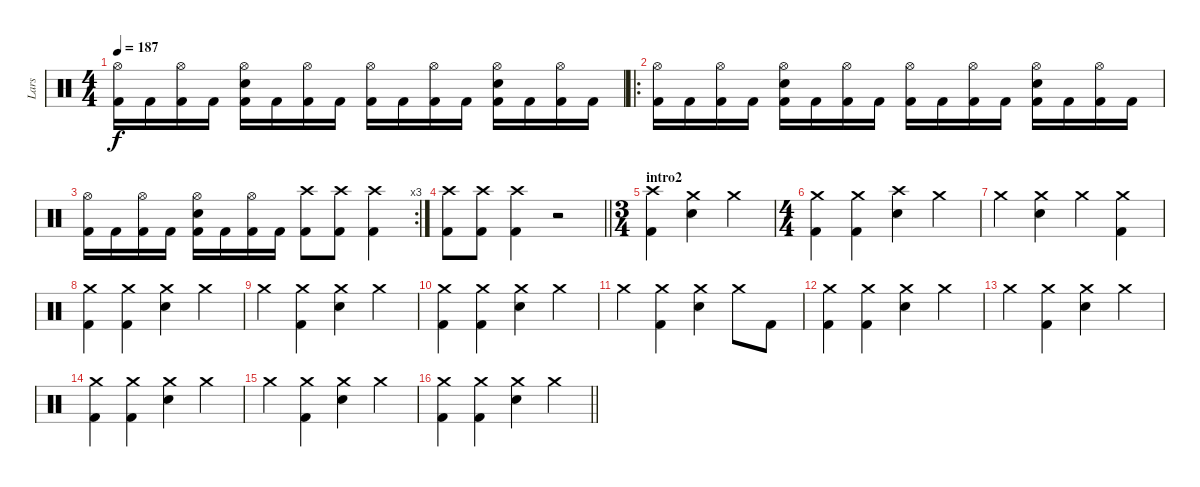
\track ("Lars" "Lars") {instrument percussion}
\staff {score}
\articulation defaults
\ts (4 4)
\tempo 187
\clef neutral
\ks c
("Hi-Hat (open)" "Kick (hit) 2").16{dy f} "Kick (hit) 2".16 ("Hi-Hat (open)" "Kick (hit) 2").16 "Kick (hit) 2".16 ("Hi-Hat (open)" "Snare (hit) 2" "Kick (hit) 2").16 "Kick (hit) 2".16 ("Hi-Hat (open)" "Kick (hit) 2").16 "Kick (hit) 2".16 ("Hi-Hat (open)" "Kick (hit) 2").16 "Kick (hit) 2".16 ("Hi-Hat (open)" "Kick (hit) 2").16 "Kick (hit) 2".16 ("Hi-Hat (open)" "Snare (hit) 2" "Kick (hit) 2").16 "Kick (hit) 2".16 ("Hi-Hat (open)" "Kick (hit) 2").16 "Kick (hit) 2".16 |
\ro
("Hi-Hat (open)" "Kick (hit) 2").16 "Kick (hit) 2".16 ("Hi-Hat (open)" "Kick (hit) 2").16 "Kick (hit) 2".16 ("Hi-Hat (open)" "Snare (hit) 2" "Kick (hit) 2").16 "Kick (hit) 2".16 ("Hi-Hat (open)" "Kick (hit) 2").16 "Kick (hit) 2".16 ("Hi-Hat (open)" "Kick (hit) 2").16 "Kick (hit) 2".16 ("Hi-Hat (open)" "Kick (hit) 2").16 "Kick (hit) 2".16 ("Hi-Hat (open)" "Snare (hit) 2" "Kick (hit) 2").16 "Kick (hit) 2".16 ("Hi-Hat (open)" "Kick (hit) 2").16 "Kick (hit) 2".16 |
\rc 3
("Hi-Hat (open)" "Kick (hit) 2").16 "Kick (hit) 2".16 ("Hi-Hat (open)" "Kick (hit) 2").16 "Kick (hit) 2".16 ("Hi-Hat (open)" "Snare (hit) 2" "Kick (hit) 2").16 "Kick (hit) 2".16 ("Hi-Hat (open)" "Kick (hit) 2").16 "Kick (hit) 2".16 ("Crash high (hit)" "Kick (hit) 2").8 ("Crash high (hit)" "Kick (hit) 2").8 ("Crash high (hit)" "Kick (hit) 2").4 |
\barLineRight lightlight
("Crash high (hit)" "Kick (hit) 2").8 ("Crash high (hit)" "Kick (hit) 2").8 ("Crash high (hit)" "Kick (hit) 2").4 r.2 |
\ts (3 4)
\section ("" "intro2")
("Crash high (hit)" "Kick (hit) 2").4 ("Crash medium (hit)" "Snare (hit) 2").4 "Crash medium (hit)".4 |
\ts (4 4)
("Crash medium (hit)" "Kick (hit) 2").4 ("Crash medium (hit)" "Kick (hit) 2").4 ("Crash high (hit)" "Snare (hit) 2").4 "Crash medium (hit)".4 |
"Crash medium (hit)".4 ("Crash medium (hit)" "Snare (hit) 2").4 "Crash medium (hit)".4 ("Crash medium (hit)" "Kick (hit) 2").4 |
("Crash medium (hit)" "Kick (hit) 2").4 ("Crash medium (hit)" "Kick (hit) 2").4 ("Crash medium (hit)" "Snare (hit) 2").4 "Crash medium (hit)".4 |
"Crash medium (hit)".4 ("Crash medium (hit)" "Kick (hit) 2").4 ("Crash medium (hit)" "Snare (hit) 2").4 "Crash medium (hit)".4 |
("Crash medium (hit)" "Kick (hit) 2").4 ("Crash medium (hit)" "Kick (hit) 2").4 ("Crash medium (hit)" "Snare (hit) 2").4 "Crash medium (hit)".4 |
"Crash medium (hit)".4 ("Crash medium (hit)" "Kick (hit) 2").4 ("Crash medium (hit)" "Snare (hit) 2").4 "Crash medium (hit)".8 "Kick (hit) 2".8 |
("Crash medium (hit)" "Kick (hit) 2").4 ("Crash medium (hit)" "Kick (hit) 2").4 ("Crash medium (hit)" "Snare (hit) 2").4 "Crash medium (hit)".4 |
"Crash medium (hit)".4 ("Crash medium (hit)" "Kick (hit) 2").4 ("Crash medium (hit)" "Snare (hit) 2").4 "Crash medium (hit)".4 |
("Crash medium (hit)" "Kick (hit) 2").4 ("Crash medium (hit)" "Kick (hit) 2").4 ("Crash medium (hit)" "Snare (hit) 2").4 "Crash medium (hit)".4 |
"Crash medium (hit)".4 ("Crash medium (hit)" "Kick (hit) 2").4 ("Crash medium (hit)" "Snare (hit) 2").4 "Crash medium (hit)".4 |
\barLineRight lightlight
("Crash medium (hit)" "Kick (hit) 2").4 ("Crash medium (hit)" "Kick (hit) 2").4 ("Crash medium (hit)" "Snare (hit) 2").4 "Crash medium (hit)".4
